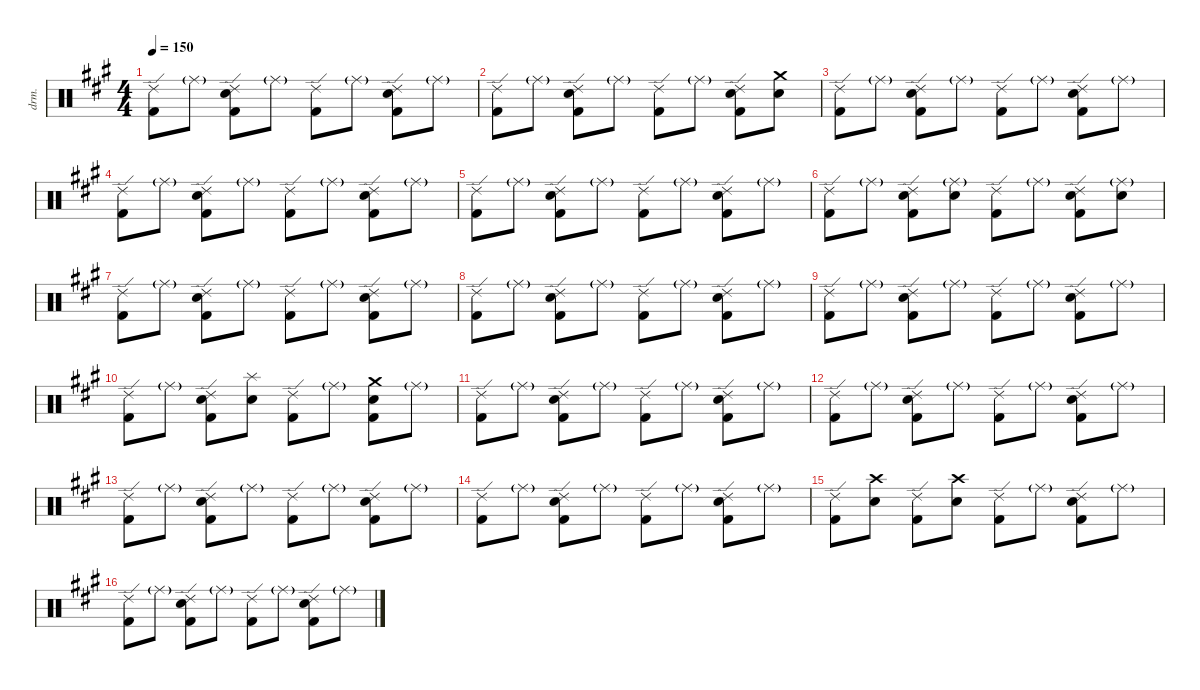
\defaultSystemsLayout 4
\hideDynamics
\bracketExtendMode nobrackets
\otherSystemsTrackNameOrientation horizontal
\track ("Drums" "drm.") {instrument percussion}
\staff {score}
\articulation defaults
\ts (4 4)
\tempo 150
\clef neutral
\ks a
("Kick (hit) 2"{acc forcenatural} "Ride (edge) 2"{acc forcenatural}).8{dy fff} "Ride (middle)"{g acc forcenatural}.8{dy p} ("Kick (hit) 2"{acc forcenatural} "Snare (hit) 2"{acc forcenatural} "Ride (edge) 2"{acc forcenatural}).8{dy fff} "Ride (middle)"{g acc forcenatural}.8{dy p} ("Kick (hit) 2"{acc forcenatural} "Ride (edge) 2"{acc forcenatural}).8{dy fff} "Ride (middle)"{g acc forcenatural}.8{dy p} ("Kick (hit) 2"{acc forcenatural} "Snare (hit) 2"{acc forcenatural} "Ride (edge) 2"{acc forcenatural}).8{dy fff} "Ride (middle)"{g acc forcenatural}.8{dy p} |
("Kick (hit) 2"{acc forcenatural} "Ride (edge) 2"{acc forcenatural}).8{dy fff} "Ride (middle)"{g acc forcenatural}.8{dy p} ("Kick (hit) 2"{acc forcenatural} "Snare (hit) 2"{acc forcenatural} "Ride (edge) 2"{acc forcenatural}).8{dy fff} "Ride (middle)"{g acc forcenatural}.8{dy p} ("Kick (hit) 2"{acc forcenatural} "Ride (edge) 2"{acc forcenatural}).8{dy fff} "Ride (middle)"{g acc forcenatural}.8{dy p} ("Kick (hit) 2"{acc forcenatural} "Snare (hit) 2"{acc forcenatural} "Ride (edge) 2"{acc forcenatural}).8{dy fff} ("Snare (hit) 2"{acc forcenatural} "Crash medium (hit)"{acc forcenatural}).8 |
("Kick (hit) 2"{acc forcenatural} "Ride (edge) 2"{acc forcenatural}).8 "Ride (middle)"{g acc forcenatural}.8{dy p} ("Kick (hit) 2"{acc forcenatural} "Snare (hit) 2"{acc forcenatural} "Ride (edge) 2"{acc forcenatural}).8{dy fff} "Ride (middle)"{g acc forcenatural}.8{dy p} ("Kick (hit) 2"{acc forcenatural} "Ride (edge) 2"{acc forcenatural}).8{dy fff} "Ride (middle)"{g acc forcenatural}.8{dy p} ("Kick (hit) 2"{acc forcenatural} "Snare (hit) 2"{acc forcenatural} "Ride (edge) 2"{acc forcenatural}).8{dy fff} "Ride (middle)"{g acc forcenatural}.8{dy p} |
("Kick (hit) 2"{acc forcenatural} "Ride (edge) 2"{acc forcenatural}).8{dy fff} "Ride (middle)"{g acc forcenatural}.8{dy p} ("Kick (hit) 2"{acc forcenatural} "Snare (hit) 2"{acc forcenatural} "Ride (edge) 2"{acc forcenatural}).8{dy fff} "Ride (middle)"{g acc forcenatural}.8{dy p} ("Kick (hit) 2"{acc forcenatural} "Ride (edge) 2"{acc forcenatural}).8{dy fff} "Ride (middle)"{g acc forcenatural}.8{dy p} ("Kick (hit) 2"{acc forcenatural} "Snare (hit) 2"{acc forcenatural} "Ride (edge) 2"{acc forcenatural}).8{dy fff} "Ride (middle)"{g acc forcenatural}.8{dy p} |
("Kick (hit) 2"{acc forcenatural} "Ride (edge) 2"{acc forcenatural}).8{dy fff} "Ride (middle)"{g acc forcenatural}.8{dy p} ("Kick (hit) 2"{acc forcenatural} "Snare (hit) 2"{acc forcenatural} "Ride (edge) 2"{acc forcenatural}).8{dy fff} "Ride (middle)"{g acc forcenatural}.8{dy p} ("Kick (hit) 2"{acc forcenatural} "Ride (edge) 2"{acc forcenatural}).8{dy fff} "Ride (middle)"{g acc forcenatural}.8{dy p} ("Kick (hit) 2"{acc forcenatural} "Snare (hit) 2"{acc forcenatural} "Ride (edge) 2"{acc forcenatural}).8{dy fff} "Ride (middle)"{g acc forcenatural}.8{dy p} |
("Kick (hit) 2"{acc forcenatural} "Ride (edge) 2"{acc forcenatural}).8{dy fff} "Ride (middle)"{g acc forcenatural}.8{dy p} ("Kick (hit) 2"{acc forcenatural} "Snare (hit) 2"{acc forcenatural} "Ride (edge) 2"{acc forcenatural}).8{dy fff} ("Snare (hit) 2"{acc forcenatural} "Ride (middle)"{g acc forcenatural}).8{dy ff} ("Kick (hit) 2"{acc forcenatural} "Ride (edge) 2"{acc forcenatural}).8{dy fff} "Ride (middle)"{g acc forcenatural}.8{dy p} ("Kick (hit) 2"{acc forcenatural} "Snare (hit) 2"{acc forcenatural} "Ride (edge) 2"{acc forcenatural}).8{dy fff} ("Snare (hit) 2"{acc forcenatural} "Ride (middle)"{g acc forcenatural}).8{dy ff} |
("Kick (hit) 2"{acc forcenatural} "Ride (edge) 2"{acc forcenatural}).8{dy fff} "Ride (middle)"{g acc forcenatural}.8{dy p} ("Kick (hit) 2"{acc forcenatural} "Snare (hit) 2"{acc forcenatural} "Ride (edge) 2"{acc forcenatural}).8{dy fff} "Ride (middle)"{g acc forcenatural}.8{dy p} ("Kick (hit) 2"{acc forcenatural} "Ride (edge) 2"{acc forcenatural}).8{dy fff} "Ride (middle)"{g acc forcenatural}.8{dy p} ("Kick (hit) 2"{acc forcenatural} "Snare (hit) 2"{acc forcenatural} "Ride (edge) 2"{acc forcenatural}).8{dy fff} "Ride (middle)"{g acc forcenatural}.8{dy p} |
("Kick (hit) 2"{acc forcenatural} "Ride (edge) 2"{acc forcenatural}).8{dy fff} "Ride (middle)"{g acc forcenatural}.8{dy p} ("Kick (hit) 2"{acc forcenatural} "Snare (hit) 2"{acc forcenatural} "Ride (edge) 2"{acc forcenatural}).8{dy fff} "Ride (middle)"{g acc forcenatural}.8{dy p} ("Kick (hit) 2"{acc forcenatural} "Ride (edge) 2"{acc forcenatural}).8{dy fff} "Ride (middle)"{g acc forcenatural}.8{dy p} ("Kick (hit) 2"{acc forcenatural} "Snare (hit) 2"{acc forcenatural} "Ride (edge) 2"{acc forcenatural}).8{dy fff} "Ride (middle)"{g acc forcenatural}.8{dy p} |
("Kick (hit) 2"{acc forcenatural} "Ride (edge) 2"{acc forcenatural}).8{dy fff} "Ride (middle)"{g acc forcenatural}.8{dy p} ("Kick (hit) 2"{acc forcenatural} "Snare (hit) 2"{acc forcenatural} "Ride (edge) 2"{acc forcenatural}).8{dy fff} "Ride (middle)"{g acc forcenatural}.8{dy p} ("Kick (hit) 2"{acc forcenatural} "Ride (edge) 2"{acc forcenatural}).8{dy fff} "Ride (middle)"{g acc forcenatural}.8{dy p} ("Kick (hit) 2"{acc forcenatural} "Snare (hit) 2"{acc forcenatural} "Ride (edge) 2"{acc forcenatural}).8{dy fff} "Ride (middle)"{g acc forcenatural}.8{dy p} |
("Kick (hit) 2"{acc forcenatural} "Ride (edge) 2"{acc forcenatural}).8{dy fff} "Ride (middle)"{g acc forcenatural}.8{dy p} ("Kick (hit) 2"{acc forcenatural} "Snare (hit) 2"{acc forcenatural} "Ride (edge) 2"{acc forcenatural}).8{dy fff} ("Snare (hit) 2"{acc forcenatural} "Splash (hit)"{acc forcenatural}).8 ("Kick (hit) 2"{acc forcenatural} "Ride (edge) 2"{acc forcenatural}).8 "Ride (middle)"{g acc forcenatural}.8{dy p} ("Kick (hit) 2"{acc forcenatural} "Snare (hit) 2"{acc forcenatural} "Crash medium (hit)"{acc forcenatural}).8{dy fff} "Ride (middle)"{g acc forcenatural}.8{dy p} |
("Kick (hit) 2"{acc forcenatural} "Ride (edge) 2"{acc forcenatural}).8{dy fff} "Ride (middle)"{g acc forcenatural}.8{dy p} ("Kick (hit) 2"{acc forcenatural} "Snare (hit) 2"{acc forcenatural} "Ride (edge) 2"{acc forcenatural}).8{dy fff} "Ride (middle)"{g acc forcenatural}.8{dy p} ("Kick (hit) 2"{acc forcenatural} "Ride (edge) 2"{acc forcenatural}).8{dy fff} "Ride (middle)"{g acc forcenatural}.8{dy p} ("Kick (hit) 2"{acc forcenatural} "Snare (hit) 2"{acc forcenatural} "Ride (edge) 2"{acc forcenatural}).8{dy fff} "Ride (middle)"{g acc forcenatural}.8{dy p} |
("Kick (hit) 2"{acc forcenatural} "Ride (edge) 2"{acc forcenatural}).8{dy fff} "Ride (middle)"{g acc forcenatural}.8{dy p} ("Kick (hit) 2"{acc forcenatural} "Snare (hit) 2"{acc forcenatural} "Ride (edge) 2"{acc forcenatural}).8{dy fff} "Ride (middle)"{g acc forcenatural}.8{dy p} ("Kick (hit) 2"{acc forcenatural} "Ride (edge) 2"{acc forcenatural}).8{dy fff} "Ride (middle)"{g acc forcenatural}.8{dy p} ("Kick (hit) 2"{acc forcenatural} "Snare (hit) 2"{acc forcenatural} "Ride (edge) 2"{acc forcenatural}).8{dy fff} "Ride (middle)"{g acc forcenatural}.8{dy p} |
("Kick (hit) 2"{acc forcenatural} "Ride (edge) 2"{acc forcenatural}).8{dy fff} "Ride (middle)"{g acc forcenatural}.8{dy p} ("Kick (hit) 2"{acc forcenatural} "Snare (hit) 2"{acc forcenatural} "Ride (edge) 2"{acc forcenatural}).8{dy fff} "Ride (middle)"{g acc forcenatural}.8{dy p} ("Kick (hit) 2"{acc forcenatural} "Ride (edge) 2"{acc forcenatural}).8{dy fff} "Ride (middle)"{g acc forcenatural}.8{dy p} ("Kick (hit) 2"{acc forcenatural} "Snare (hit) 2"{acc forcenatural} "Ride (edge) 2"{acc forcenatural}).8{dy fff} "Ride (middle)"{g acc forcenatural}.8{dy p} |
("Kick (hit) 2"{acc forcenatural} "Ride (edge) 2"{acc forcenatural}).8{dy fff} "Ride (middle)"{g acc forcenatural}.8{dy p} ("Kick (hit) 2"{acc forcenatural} "Snare (hit) 2"{acc forcenatural} "Ride (edge) 2"{acc forcenatural}).8{dy fff} "Ride (middle)"{g acc forcenatural}.8{dy p} ("Kick (hit) 2"{acc forcenatural} "Ride (edge) 2"{acc forcenatural}).8{dy fff} "Ride (middle)"{g acc forcenatural}.8{dy p} ("Kick (hit) 2"{acc forcenatural} "Snare (hit) 2"{acc forcenatural} "Ride (edge) 2"{acc forcenatural}).8{dy fff} "Ride (middle)"{g acc forcenatural}.8{dy p} |
("Kick (hit) 2"{acc forcenatural} "Ride (edge) 2"{acc forcenatural}).8{dy mf} ("Snare (hit) 2"{acc forcenatural} "Crash high (hit)"{acc forcenatural}).8{dy fff} ("Kick (hit) 2"{acc forcenatural} "Ride (edge) 2"{acc forcenatural}).8 ("Snare (hit) 2"{acc forcenatural} "Crash high (hit)"{acc forcenatural}).8 ("Kick (hit) 2"{acc forcenatural} "Ride (edge) 2"{acc forcenatural}).8 "Ride (middle)"{g acc forcenatural}.8{dy p} ("Kick (hit) 2"{acc forcenatural} "Snare (hit) 2"{acc forcenatural} "Ride (edge) 2"{acc forcenatural}).8{dy fff} "Ride (middle)"{g acc forcenatural}.8{dy p} |
("Kick (hit) 2"{acc forcenatural} "Ride (edge) 2"{acc forcenatural}).8{dy fff} "Ride (middle)"{g acc forcenatural}.8{dy p} ("Kick (hit) 2"{acc forcenatural} "Snare (hit) 2"{acc forcenatural} "Ride (edge) 2"{acc forcenatural}).8{dy fff} "Ride (middle)"{g acc forcenatural}.8{dy p} ("Kick (hit) 2"{acc forcenatural} "Ride (edge) 2"{acc forcenatural}).8{dy fff} "Ride (middle)"{g acc forcenatural}.8{dy p} ("Kick (hit) 2"{acc forcenatural} "Snare (hit) 2"{acc forcenatural} "Ride (edge) 2"{acc forcenatural}).8{dy fff} "Ride (middle)"{g acc forcenatural}.8{dy p}
